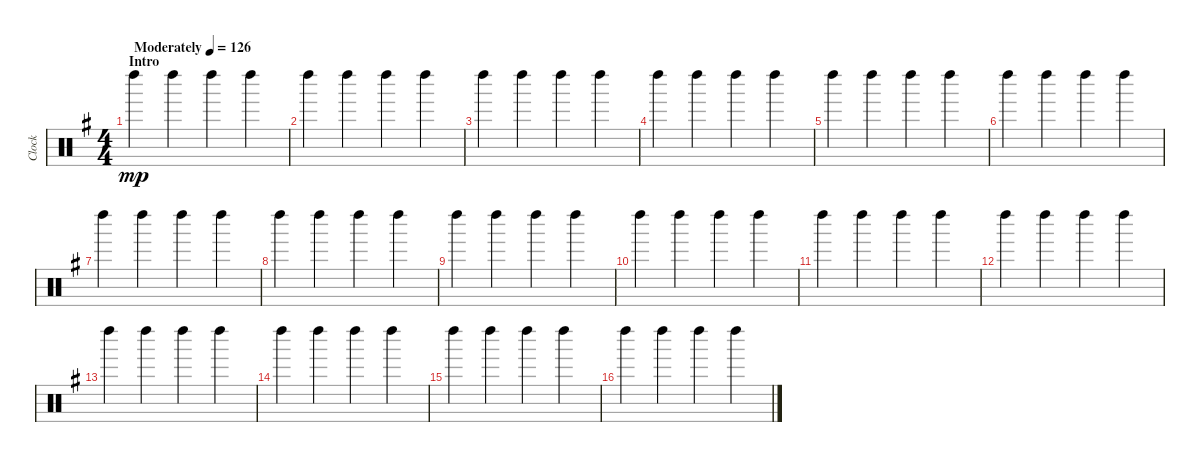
\track ("Clock" "Clock") {instrument percussion}
\staff {score}
\articulation defaults
\ts (4 4)
\section ("" "Intro")
\tempo (126 "Moderately")
\clef neutral
\ks eminor "Left Maraca (hit)".4{dy mp} "Left Maraca (hit)".4 "Left Maraca (hit)".4 "Left Maraca (hit)".4
|
"Left Maraca (hit)".4 "Left Maraca (hit)".4 "Left Maraca (hit)".4 "Left Maraca (hit)".4 |
"Left Maraca (hit)".4 "Left Maraca (hit)".4 "Left Maraca (hit)".4 "Left Maraca (hit)".4 |
"Left Maraca (hit)".4 "Left Maraca (hit)".4 "Left Maraca (hit)".4 "Left Maraca (hit)".4 |
"Left Maraca (hit)".4 "Left Maraca (hit)".4 "Left Maraca (hit)".4 "Left Maraca (hit)".4 |
"Left Maraca (hit)".4 "Left Maraca (hit)".4 "Left Maraca (hit)".4 "Left Maraca (hit)".4 |
"Left Maraca (hit)".4 "Left Maraca (hit)".4 "Left Maraca (hit)".4 "Left Maraca (hit)".4 |
"Left Maraca (hit)".4 "Left Maraca (hit)".4 "Left Maraca (hit)".4 "Left Maraca (hit)".4 |
"Left Maraca (hit)".4 "Left Maraca (hit)".4 "Left Maraca (hit)".4 "Left Maraca (hit)".4 |
"Left Maraca (hit)".4 "Left Maraca (hit)".4 "Left Maraca (hit)".4 "Left Maraca (hit)".4 |
"Left Maraca (hit)".4 "Left Maraca (hit)".4 "Left Maraca (hit)".4 "Left Maraca (hit)".4 |
"Left Maraca (hit)".4 "Left Maraca (hit)".4 "Left Maraca (hit)".4 "Left Maraca (hit)".4 |
"Left Maraca (hit)".4 "Left Maraca (hit)".4 "Left Maraca (hit)".4 "Left Maraca (hit)".4 |
"Left Maraca (hit)".4 "Left Maraca (hit)".4 "Left Maraca (hit)".4 "Left Maraca (hit)".4 |
"Left Maraca (hit)".4 "Left Maraca (hit)".4 "Left Maraca (hit)".4 "Left Maraca (hit)".4 |
"Left Maraca (hit)".4 "Left Maraca (hit)".4 "Left Maraca (hit)".4 "Left Maraca (hit)".4
